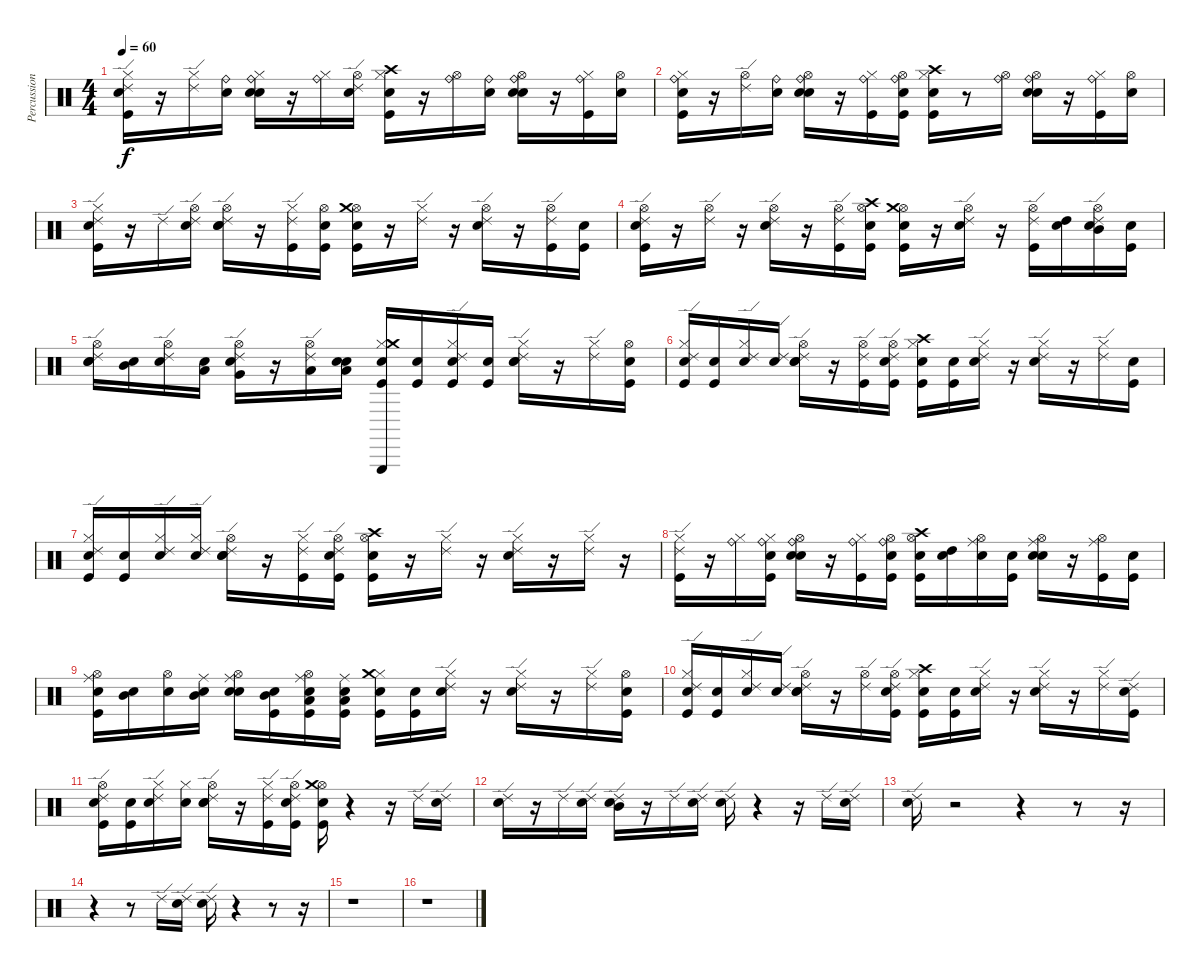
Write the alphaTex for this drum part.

\track ("Percussions" "Percussion") {instrument percussion}
\staff {score}
\articulation defaults
\ts (4 4)
\tempo 60
\clef neutral
\ks c
("Snare (hit)" "Kick (hit)" "Hi-Hat (closed)" "Ride (edge) 2").16{dy f} r.16 ("Hi-Hat (closed)" "Ride (edge) 2").16 ("Snare (hit)" "Ride (bell)").16 ("Snare (hit)" "Electric Snare (hit)" "Hi-Hat (closed)" "Ride (bell)").16 r.16 ("Hi-Hat (closed)" "Ride (bell)").16 ("Snare (hit)" "Hi-Hat (open)" "Ride (edge) 2").16 ("Snare (hit)" "Kick (hit)" "Hi-Hat (closed)" "Crash high (hit)").16 r.16 ("Hi-Hat (open)" "Ride (bell)").16 ("Snare (hit)" "Ride (bell)").16 ("Snare (hit)" "Electric Snare (hit)" "Hi-Hat (open)" "Ride (bell)").16 r.16 ("Kick (hit)" "Hi-Hat (closed)" "Ride (bell)").16 ("Snare (hit)" "Hi-Hat (open)").16 |
("Snare (hit)" "Kick (hit)" "Hi-Hat (closed)" "Ride (bell)").16 r.16 ("Hi-Hat (open)" "Ride (edge) 2").16 ("Snare (hit)" "Ride (bell)").16 ("Snare (hit)" "Electric Snare (hit)" "Hi-Hat (open)" "Ride (bell)").16 r.16 ("Kick (hit)" "Hi-Hat (closed)" "Ride (bell)").16 ("Snare (hit)" "Kick (hit)" "Hi-Hat (open)" "Ride (bell)").16 ("Snare (hit)" "Kick (hit)" "Hi-Hat (closed)" "Crash high (hit)").16 r.8 ("Hi-Hat (open)" "Ride (bell)").16 ("Snare (hit)" "Electric Snare (hit)" "Hi-Hat (open)" "Ride (bell)").16 r.16 ("Kick (hit)" "Hi-Hat (closed)" "Ride (bell)").16 ("Snare (hit)" "Hi-Hat (open)").16 |
("Snare (hit)" "Kick (hit)" "Hi-Hat (closed)" "Ride (edge) 2").16 r.16 "Ride (edge) 2".16 ("Snare (hit)" "Hi-Hat (open)" "Ride (edge) 2").16 ("Snare (hit)" "Electric Snare (hit)" "Hi-Hat (open)" "Ride (edge) 2").16 r.16 ("Kick (hit)" "Hi-Hat (closed)" "Ride (edge) 2").16 ("Snare (hit)" "Kick (hit)" "Hi-Hat (open)").16 ("Snare (hit)" "Kick (hit)" "Hi-Hat (open)" "Crash medium (hit)").16 r.16 ("Hi-Hat (closed)" "Ride (edge) 2").16 r.16 ("Electric Snare (hit)" "Hi-Hat (open)" "Ride (edge) 2").16 r.16 ("Kick (hit)" "Hi-Hat (open)" "Ride (edge) 2").16 ("Snare (hit)" "Kick (hit)").16 |
("Snare (hit)" "Kick (hit)" "Hi-Hat (open)" "Ride (edge) 2").16 r.16 ("Hi-Hat (open)" "Ride (edge) 2").16 r.16 ("Electric Snare (hit)" "Hi-Hat (open)" "Ride (edge) 2").16 r.16 ("Kick (hit)" "Hi-Hat (open)" "Ride (edge) 2").16 ("Snare (hit)" "Kick (hit)" "Hi-Hat (open)" "Crash high (hit)").16 ("Snare (hit)" "Kick (hit)" "Hi-Hat (open)" "Crash medium (hit)").16 r.16 ("Electric Snare (hit)" "Hi-Hat (open)" "Ride (edge) 2").16 r.16 ("Kick (hit)" "Hi-Hat (open)" "Ride (edge) 2").16 ("Snare (hit)" "High Tom (hit)").16 ("Snare (hit)" "Hi-Hat (open)" "Mid Tom (hit)" "Ride (edge) 2").16 ("Snare (hit)" "Kick (hit)").16 |
("Snare (hit)" "Electric Snare (hit)" "Hi-Hat (open)" "Ride (edge) 2").16 ("Snare (hit)" "Mid Tom (hit)").16 ("Snare (hit)" "Hi-Hat (open)" "Ride (edge) 2").16 ("Snare (hit)" "Low Tom (hit)").16 ("Snare (hit)" "Very Low Tom (hit)" "Hi-Hat (open)" "Ride (edge) 2").16 r.16 ("Low Floor Tom (hit)" "Hi-Hat (open)" "Ride (edge) 2").16 ("Snare (hit)" "Electric Snare (hit)" "Low Floor Tom (hit)").16 ("Snare (hit)" "Kick (hit)" "Hi-Hat (closed)" "Crash medium (hit)" "Triangle (hit)").16 ("Snare (hit)" "Kick (hit)").16 ("Snare (hit)" "Kick (hit)" "Hi-Hat (closed)" "Ride (edge) 2").16 ("Snare (hit)" "Kick (hit)").16 ("Snare (hit)" "Electric Snare (hit)" "Hi-Hat (closed)" "Ride (edge) 2").16 r.16 ("Hi-Hat (closed)" "Ride (edge) 2").16 ("Snare (hit)" "Kick (hit)" "Hi-Hat (open)").16 |
("Snare (hit)" "Kick (hit)" "Hi-Hat (closed)" "Ride (edge) 2").16 ("Snare (hit)" "Kick (hit)").16 ("Snare (hit)" "Hi-Hat (closed)" "Ride (edge) 2").16 ("Snare (hit)" "Ride (edge) 2").16 ("Snare (hit)" "Electric Snare (hit)" "Hi-Hat (open)" "Ride (edge) 2").16 r.16 ("Kick (hit)" "Hi-Hat (open)" "Ride (edge) 2").16 ("Snare (hit)" "Kick (hit)" "Hi-Hat (open)" "Ride (edge) 2").16 ("Snare (hit)" "Kick (hit)" "Hi-Hat (closed)" "Crash high (hit)").16 ("Snare (hit)" "Kick (hit)").16 ("Snare (hit)" "Hi-Hat (closed)" "Ride (edge) 2").16 r.16 ("Electric Snare (hit)" "Hi-Hat (closed)" "Ride (edge) 2").16 r.16 ("Hi-Hat (closed)" "Ride (edge) 2").16 ("Snare (hit)" "Kick (hit)").16 |
("Snare (hit)" "Kick (hit)" "Hi-Hat (closed)" "Ride (edge) 2").16 ("Snare (hit)" "Kick (hit)").16 ("Snare (hit)" "Hi-Hat (closed)" "Ride (edge) 2").16 ("Snare (hit)" "Hi-Hat (closed)" "Ride (edge) 2").16 ("Snare (hit)" "Electric Snare (hit)" "Hi-Hat (open)" "Ride (edge) 2").16 r.16 ("Kick (hit)" "Hi-Hat (closed)" "Ride (edge) 2").16 ("Snare (hit)" "Kick (hit)" "Hi-Hat (open)" "Ride (edge) 2").16 ("Snare (hit)" "Kick (hit)" "Hi-Hat (open)" "Crash high (hit)").16 r.16 ("Hi-Hat (closed)" "Ride (edge) 2").16 r.16 ("Electric Snare (hit)" "Hi-Hat (closed)" "Ride (edge) 2").16 r.16 ("Hi-Hat (closed)" "Ride (edge) 2").16 r.16 |
("Kick (hit)" "Hi-Hat (closed)" "Ride (edge) 2").16 r.16 ("Hi-Hat (closed)" "Ride (bell)").16 ("Snare (hit)" "Kick (hit)" "Hi-Hat (closed)" "Ride (bell)").16 ("Snare (hit)" "Electric Snare (hit)" "Hi-Hat (open)" "Ride (bell)").16 r.16 ("Kick (hit)" "Hi-Hat (closed)" "Ride (bell)").16 ("Snare (hit)" "Kick (hit)" "Hi-Hat (open)" "Ride (bell)").16 ("Snare (hit)" "Kick (hit)" "Hi-Hat (open)" "Crash high (hit)").16 ("Snare (hit)" "High Tom (hit)").16 ("Snare (hit)" "Hi-Hat (open)" "Ride (middle)").16 ("Snare (hit)" "Kick (hit)").16 ("Snare (hit)" "Electric Snare (hit)" "Hi-Hat (open)" "Ride (middle)").16 r.16 ("Kick (hit)" "Hi-Hat (open)" "Ride (middle)").16 ("Snare (hit)" "Kick (hit)").16 |
("Snare (hit)" "Kick (hit)" "Hi-Hat (open)" "Ride (middle)").16 ("Snare (hit)" "Mid Tom (hit)").16 ("Snare (hit)" "Hi-Hat (open)").16 ("Snare (hit)" "Mid Tom (hit)" "Ride (middle)").16 ("Snare (hit)" "Electric Snare (hit)" "Hi-Hat (open)" "Ride (middle)").16 ("Snare (hit)" "Kick (hit)" "Mid Tom (hit)").16 ("Snare (hit)" "Kick (hit)" "Low Tom (hit)" "Hi-Hat (open)" "Ride (middle)").16 ("Snare (hit)" "Kick (hit)" "Low Tom (hit)" "Ride (middle)").16 ("Snare (hit)" "Kick (hit)" "Hi-Hat (closed)" "Crash medium (hit)").16 ("Snare (hit)" "Kick (hit)").16 ("Snare (hit)" "Hi-Hat (closed)" "Ride (edge) 2").16 r.16 ("Electric Snare (hit)" "Hi-Hat (closed)" "Ride (edge) 2").16 r.16 ("Hi-Hat (closed)" "Ride (edge) 2").16 ("Snare (hit)" "Kick (hit)" "Hi-Hat (open)").16 |
("Snare (hit)" "Kick (hit)" "Hi-Hat (closed)" "Ride (edge) 2").16 ("Snare (hit)" "Kick (hit)").16 ("Snare (hit)" "Hi-Hat (closed)" "Ride (edge) 2").16 ("Snare (hit)" "Ride (edge) 2").16 ("Snare (hit)" "Electric Snare (hit)" "Hi-Hat (open)" "Ride (edge) 2").16 r.16 ("Hi-Hat (open)" "Ride (edge) 2").16 ("Snare (hit)" "Kick (hit)" "Hi-Hat (open)" "Ride (edge) 2").16 ("Snare (hit)" "Kick (hit)" "Hi-Hat (closed)" "Crash high (hit)").16 ("Snare (hit)" "Kick (hit)").16 ("Snare (hit)" "Hi-Hat (closed)" "Ride (edge) 2").16 r.16 ("Electric Snare (hit)" "Hi-Hat (closed)" "Ride (edge) 2").16 r.16 ("Hi-Hat (closed)" "Ride (edge) 2").16 ("Snare (hit)" "Kick (hit)" "Ride (edge) 2").16 |
("Snare (hit)" "Kick (hit)" "Hi-Hat (open)" "Ride (edge) 2").16 ("Snare (hit)" "Kick (hit)").16 ("Snare (hit)" "Hi-Hat (closed)" "Ride (edge) 2").16 ("Snare (hit)" "Hi-Hat (closed)").16 ("Snare (hit)" "Electric Snare (hit)" "Hi-Hat (open)" "Ride (edge) 2").16 r.16 ("Kick (hit)" "Hi-Hat (closed)" "Ride (edge) 2").16 ("Snare (hit)" "Kick (hit)" "Hi-Hat (open)" "Ride (edge) 2").16 ("Snare (hit)" "Kick (hit)" "Hi-Hat (open)" "Crash medium (hit)").16 r.4 r.16 "Ride (edge) 2".16 ("Snare (hit)" "Ride (edge) 2").16 |
("Snare (hit)" "Ride (edge) 2").16 r.16 "Ride (edge) 2".16 ("Snare (hit)" "Ride (edge) 2").16 ("Snare (hit)" "Mid Tom (hit)" "Ride (edge) 2").16 r.16 "Ride (edge) 2".16 ("Snare (hit)" "Ride (edge) 2").16 ("Snare (hit)" "Ride (edge) 2").16 r.4 r.16 "Ride (edge) 2".16 ("Snare (hit)" "Ride (edge) 2").16 |
("Snare (hit)" "Ride (edge) 2").16 r.2 r.4 r.8 r.16 |
r.4 r.8 "Ride (edge) 2".16 ("Snare (hit)" "Ride (edge) 2").16 ("Snare (hit)" "Ride (edge) 2").16 r.4 r.8 r.16 |
r.1 |
r.1
